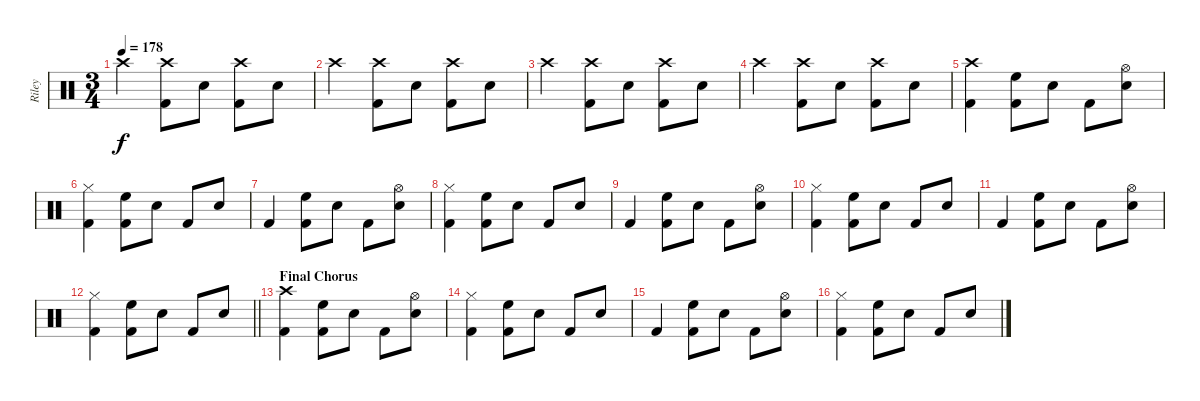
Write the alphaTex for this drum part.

\track ("Riley" "Riley") {instrument percussion}
\staff {score}
\articulation defaults
\ts (3 4)
\tempo 178
\clef neutral
\ks c "Crash high (hit)".4{dy f}
("Crash high (hit)" "Kick (hit) 2").8 "Snare (hit) 2".8 ("Crash high (hit)" "Kick (hit) 2").8 "Snare (hit) 2".8 |
"Crash high (hit)".4 ("Crash high (hit)" "Kick (hit) 2").8 "Snare (hit) 2".8 ("Crash high (hit)" "Kick (hit) 2").8 "Snare (hit) 2".8 |
"Crash high (hit)".4 ("Crash high (hit)" "Kick (hit) 2").8 "Snare (hit) 2".8 ("Crash high (hit)" "Kick (hit) 2").8 "Snare (hit) 2".8 |
"Crash high (hit)".4 ("Crash high (hit)" "Kick (hit) 2").8 "Snare (hit) 2".8 ("Crash high (hit)" "Kick (hit) 2").8 "Snare (hit) 2".8 |
("Crash high (hit)" "Kick (hit) 2").4 ("High Floor Tom (hit)" "Kick (hit) 2").8 "Snare (hit) 2".8 "Kick (hit) 2".8 ("Hi-Hat (open)" "Snare (hit) 2").8 |
("Hi-Hat (closed)" "Kick (hit) 2").4 ("High Floor Tom (hit)" "Kick (hit) 2").8 "Snare (hit) 2".8 "Kick (hit) 2".8 "Snare (hit) 2".8 |
"Kick (hit) 2".4 ("High Floor Tom (hit)" "Kick (hit) 2").8 "Snare (hit) 2".8 "Kick (hit) 2".8 ("Hi-Hat (open)" "Snare (hit) 2").8 |
("Hi-Hat (closed)" "Kick (hit) 2").4 ("High Floor Tom (hit)" "Kick (hit) 2").8 "Snare (hit) 2".8 "Kick (hit) 2".8 "Snare (hit) 2".8 |
"Kick (hit) 2".4 ("High Floor Tom (hit)" "Kick (hit) 2").8 "Snare (hit) 2".8 "Kick (hit) 2".8 ("Hi-Hat (open)" "Snare (hit) 2").8 |
("Hi-Hat (closed)" "Kick (hit) 2").4 ("High Floor Tom (hit)" "Kick (hit) 2").8 "Snare (hit) 2".8 "Kick (hit) 2".8 "Snare (hit) 2".8 |
"Kick (hit) 2".4 ("High Floor Tom (hit)" "Kick (hit) 2").8 "Snare (hit) 2".8 "Kick (hit) 2".8 ("Hi-Hat (open)" "Snare (hit) 2").8 |
\barLineRight lightlight
("Hi-Hat (closed)" "Kick (hit) 2").4 ("High Floor Tom (hit)" "Kick (hit) 2").8 "Snare (hit) 2".8 "Kick (hit) 2".8 "Snare (hit) 2".8 |
\section ("" "Final Chorus")
("Crash high (hit)" "Kick (hit) 2").4 ("High Floor Tom (hit)" "Kick (hit) 2").8 "Snare (hit) 2".8 "Kick (hit) 2".8 ("Hi-Hat (open)" "Snare (hit) 2").8 |
("Hi-Hat (closed)" "Kick (hit) 2").4 ("High Floor Tom (hit)" "Kick (hit) 2").8 "Snare (hit) 2".8 "Kick (hit) 2".8 "Snare (hit) 2".8 |
"Kick (hit) 2".4 ("High Floor Tom (hit)" "Kick (hit) 2").8 "Snare (hit) 2".8 "Kick (hit) 2".8 ("Hi-Hat (open)" "Snare (hit) 2").8 |
("Hi-Hat (closed)" "Kick (hit) 2").4 ("High Floor Tom (hit)" "Kick (hit) 2").8 "Snare (hit) 2".8 "Kick (hit) 2".8 "Snare (hit) 2".8
